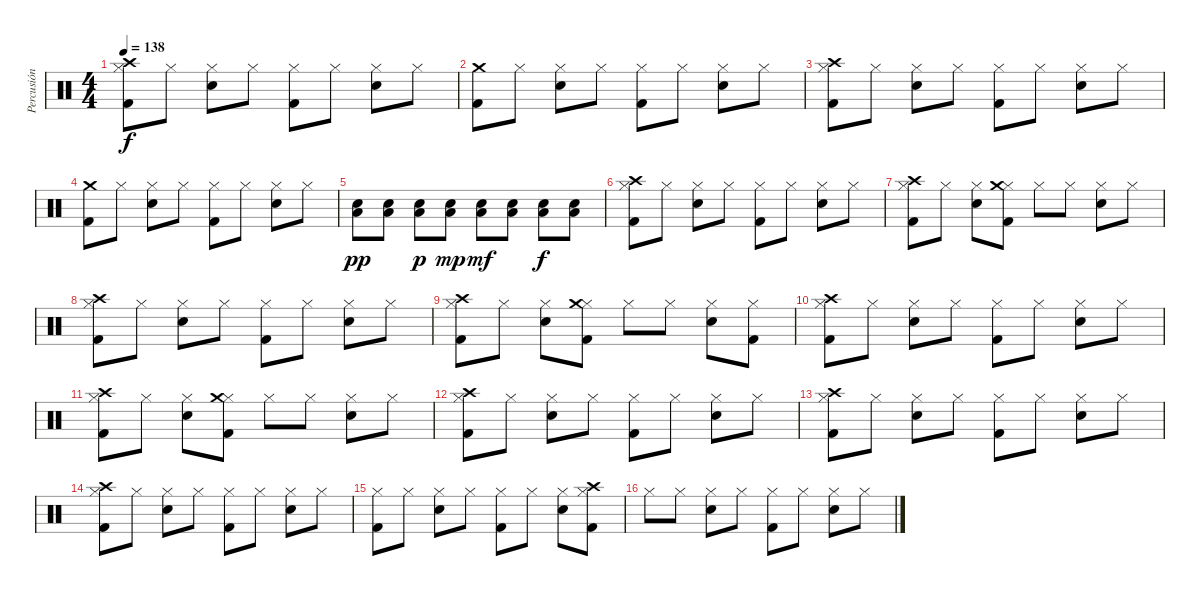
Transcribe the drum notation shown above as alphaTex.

\track ("Percusión" "Percusión") {instrument percussion bank 10}
\staff {score}
\articulation defaults
\ts (4 4)
\tempo 138
\clef neutral
\ks c
("Hi-Hat (closed)" "Kick (hit) 2" "Crash high (hit)").8{dy f} "Hi-Hat (closed)".8 ("Hi-Hat (closed)" "Snare (hit) 2").8 "Hi-Hat (closed)".8 ("Hi-Hat (closed)" "Kick (hit) 2").8 "Hi-Hat (closed)".8 ("Hi-Hat (closed)" "Snare (hit) 2").8 "Hi-Hat (closed)".8 |
("Kick (hit) 2" "Crash medium (hit)").8 "Hi-Hat (closed)".8 ("Hi-Hat (closed)" "Snare (hit) 2").8 "Hi-Hat (closed)".8 ("Hi-Hat (closed)" "Kick (hit) 2").8 "Hi-Hat (closed)".8 ("Hi-Hat (closed)" "Snare (hit) 2").8 "Hi-Hat (closed)".8 |
("Hi-Hat (closed)" "Kick (hit) 2" "Crash high (hit)").8 "Hi-Hat (closed)".8 ("Hi-Hat (closed)" "Snare (hit) 2").8 "Hi-Hat (closed)".8 ("Hi-Hat (closed)" "Kick (hit) 2").8 "Hi-Hat (closed)".8 ("Hi-Hat (closed)" "Snare (hit) 2").8 "Hi-Hat (closed)".8 |
("Kick (hit) 2" "Crash medium (hit)").8 "Hi-Hat (closed)".8 ("Hi-Hat (closed)" "Snare (hit) 2").8 "Hi-Hat (closed)".8 ("Hi-Hat (closed)" "Kick (hit) 2").8 "Hi-Hat (closed)".8 ("Hi-Hat (closed)" "Snare (hit) 2").8 "Hi-Hat (closed)".8 |
("Snare (hit) 2" "Low Floor Tom (hit)").8{dy pp} ("Snare (hit) 2" "Low Floor Tom (hit)").8 ("Snare (hit) 2" "Low Floor Tom (hit)").8{dy p} ("Snare (hit) 2" "Low Floor Tom (hit)").8{dy mp} ("Snare (hit) 2" "Low Floor Tom (hit)").8{dy mf} ("Snare (hit) 2" "Low Floor Tom (hit)").8 ("Snare (hit) 2" "Low Floor Tom (hit)").8{dy f} ("Snare (hit) 2" "Low Floor Tom (hit)").8 |
("Hi-Hat (closed)" "Crash high (hit)" "Kick (hit) 2").8 "Hi-Hat (closed)".8 ("Hi-Hat (closed)" "Snare (hit) 2").8 "Hi-Hat (closed)".8 ("Hi-Hat (closed)" "Kick (hit) 2").8 "Hi-Hat (closed)".8 ("Hi-Hat (closed)" "Snare (hit) 2").8 "Hi-Hat (closed)".8 |
("Hi-Hat (closed)" "Crash high (hit)" "Kick (hit) 2").8 "Hi-Hat (closed)".8 ("Hi-Hat (closed)" "Snare (hit) 2").8 ("Hi-Hat (closed)" "Crash medium (hit)" "Kick (hit) 2").8 "Hi-Hat (closed)".8 "Hi-Hat (closed)".8 ("Hi-Hat (closed)" "Snare (hit) 2").8 "Hi-Hat (closed)".8 |
("Hi-Hat (closed)" "Crash high (hit)" "Kick (hit) 2").8 "Hi-Hat (closed)".8 ("Hi-Hat (closed)" "Snare (hit) 2").8 "Hi-Hat (closed)".8 ("Hi-Hat (closed)" "Kick (hit) 2").8 "Hi-Hat (closed)".8 ("Hi-Hat (closed)" "Snare (hit) 2").8 "Hi-Hat (closed)".8 |
("Hi-Hat (closed)" "Crash high (hit)" "Kick (hit) 2").8 "Hi-Hat (closed)".8 ("Hi-Hat (closed)" "Snare (hit) 2").8 ("Hi-Hat (closed)" "Crash medium (hit)" "Kick (hit) 2").8 "Hi-Hat (closed)".8 "Hi-Hat (closed)".8 ("Hi-Hat (closed)" "Snare (hit) 2").8 ("Hi-Hat (closed)" "Kick (hit) 2").8 |
("Hi-Hat (closed)" "Crash high (hit)" "Kick (hit) 2").8 "Hi-Hat (closed)".8 ("Hi-Hat (closed)" "Snare (hit) 2").8 "Hi-Hat (closed)".8 ("Hi-Hat (closed)" "Kick (hit) 2").8 "Hi-Hat (closed)".8 ("Hi-Hat (closed)" "Snare (hit) 2").8 "Hi-Hat (closed)".8 |
("Hi-Hat (closed)" "Crash high (hit)" "Kick (hit) 2").8 "Hi-Hat (closed)".8 ("Hi-Hat (closed)" "Snare (hit) 2").8 ("Hi-Hat (closed)" "Crash medium (hit)" "Kick (hit) 2").8 "Hi-Hat (closed)".8 "Hi-Hat (closed)".8 ("Hi-Hat (closed)" "Snare (hit) 2").8 "Hi-Hat (closed)".8 |
("Hi-Hat (closed)" "Crash high (hit)" "Kick (hit) 2").8 "Hi-Hat (closed)".8 ("Hi-Hat (closed)" "Snare (hit) 2").8 "Hi-Hat (closed)".8 ("Hi-Hat (closed)" "Kick (hit) 2").8 "Hi-Hat (closed)".8 ("Hi-Hat (closed)" "Snare (hit) 2").8 "Hi-Hat (closed)".8 |
("Hi-Hat (closed)" "Crash high (hit)" "Kick (hit) 2").8 "Hi-Hat (closed)".8 ("Hi-Hat (closed)" "Snare (hit) 2").8 "Hi-Hat (closed)".8 ("Hi-Hat (closed)" "Kick (hit) 2").8 "Hi-Hat (closed)".8 ("Hi-Hat (closed)" "Snare (hit) 2").8 "Hi-Hat (closed)".8 |
("Hi-Hat (closed)" "Crash high (hit)" "Kick (hit) 2").8 "Hi-Hat (closed)".8 ("Hi-Hat (closed)" "Snare (hit) 2").8 "Hi-Hat (closed)".8 ("Hi-Hat (closed)" "Kick (hit) 2").8 "Hi-Hat (closed)".8 ("Hi-Hat (closed)" "Snare (hit) 2").8 "Hi-Hat (closed)".8 |
("Hi-Hat (closed)" "Kick (hit) 2").8 "Hi-Hat (closed)".8 ("Hi-Hat (closed)" "Snare (hit) 2").8 "Hi-Hat (closed)".8 ("Hi-Hat (closed)" "Kick (hit) 2").8 "Hi-Hat (closed)".8 ("Hi-Hat (closed)" "Snare (hit) 2").8 ("Hi-Hat (closed)" "Crash high (hit)" "Kick (hit) 2").8 |
"Hi-Hat (closed)".8 "Hi-Hat (closed)".8 ("Hi-Hat (closed)" "Snare (hit) 2").8 "Hi-Hat (closed)".8 ("Hi-Hat (closed)" "Kick (hit) 2").8 "Hi-Hat (closed)".8 ("Hi-Hat (closed)" "Snare (hit) 2").8 "Hi-Hat (closed)".8
